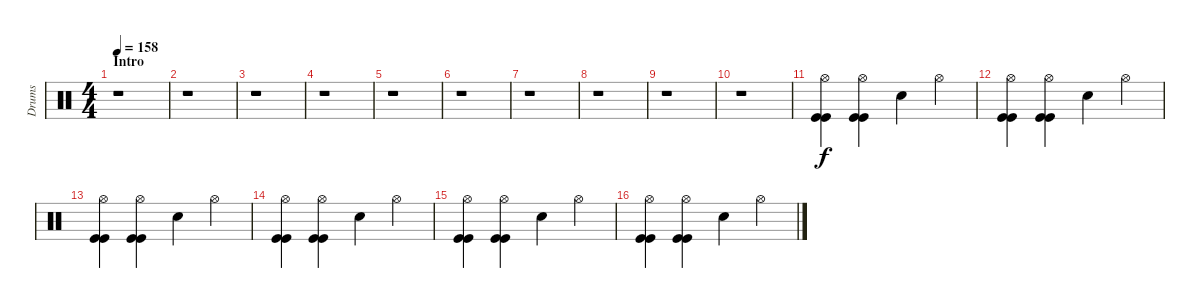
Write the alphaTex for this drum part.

\track ("Drums" "Drums") {instrument percussion}
\staff {score}
\articulation defaults
\ts (4 4)
\section ("" "Intro")
\tempo 158
\clef neutral
\ks c
r.1{dy f} |
r.1 |
r.1 |
r.1 |
r.1 |
r.1 |
r.1 |
r.1 |
r.1 |
r.1 |
("Hi-Hat (open)" "Kick (hit)" "Kick (hit)").4{volume 5} ("Hi-Hat (open)" "Kick (hit)" "Kick (hit)").4 "Electric Snare (hit)".4{volume 6} "Hi-Hat (open)".4 |
("Hi-Hat (open)" "Kick (hit)" "Kick (hit)").4{volume 7} ("Hi-Hat (open)" "Kick (hit)" "Kick (hit)").4 "Electric Snare (hit)".4 "Hi-Hat (open)".4{volume 8} |
("Hi-Hat (open)" "Kick (hit)" "Kick (hit)").4 ("Hi-Hat (open)" "Kick (hit)" "Kick (hit)").4 "Electric Snare (hit)".4{volume 9} "Hi-Hat (open)".4 |
("Hi-Hat (open)" "Kick (hit)" "Kick (hit)").4 ("Hi-Hat (open)" "Kick (hit)" "Kick (hit)").4 "Electric Snare (hit)".4{volume 10} "Hi-Hat (open)".4 |
("Hi-Hat (open)" "Kick (hit)" "Kick (hit)").4 ("Hi-Hat (open)" "Kick (hit)" "Kick (hit)").4 "Electric Snare (hit)".4{volume 11} "Hi-Hat (open)".4 |
("Hi-Hat (open)" "Kick (hit)" "Kick (hit)").4 ("Hi-Hat (open)" "Kick (hit)" "Kick (hit)").4 "Electric Snare (hit)".4{volume 12} "Hi-Hat (open)".4
